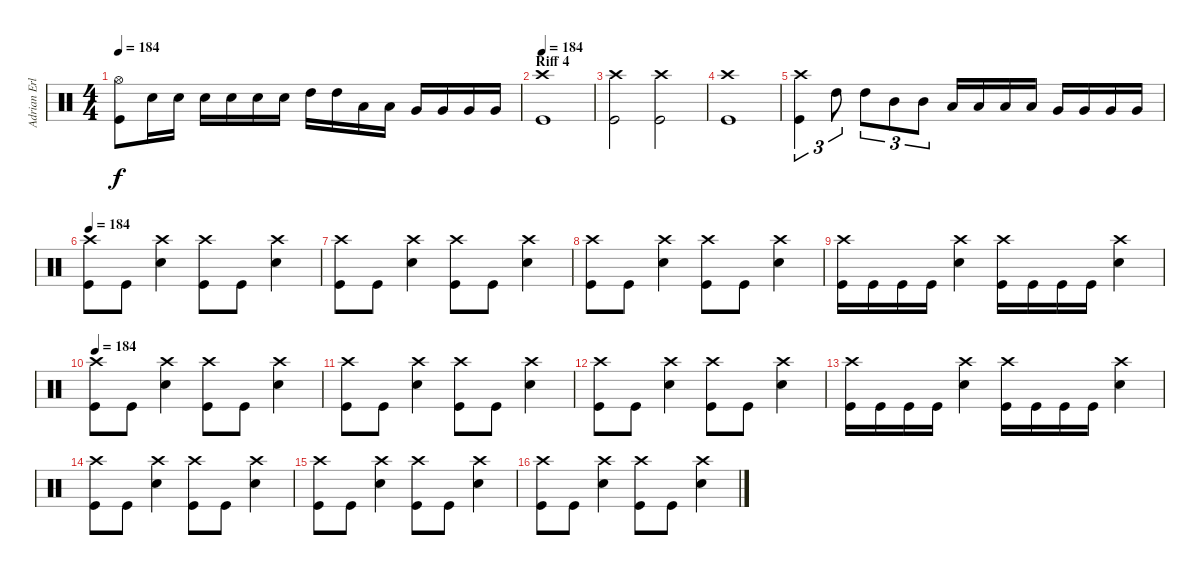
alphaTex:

\track ("Adrian Erlandsson (Norseman of the Apoca" "Adrian Erl") {instrument percussion}
\staff {score}
\articulation defaults
\ts (4 4)
\tempo 184
\clef neutral
\ks c
("Hi-Hat (open)" "Kick (hit)").8{dy f} "Electric Snare (hit)".16 "Electric Snare (hit)".16 "Electric Snare (hit)".16 "Electric Snare (hit)".16 "Electric Snare (hit)".16 "Electric Snare (hit)".16 "High Tom (hit)".16 "High Tom (hit)".16 "Low Tom (hit)".16 "Low Tom (hit)".16 "Very Low Tom (hit)".16 "Very Low Tom (hit)".16 "Very Low Tom (hit)".16 "Very Low Tom (hit)".16 |
\section ("" "Riff 4")
\tempo 184
("Crash high (hit)" "Kick (hit)").1 |
("Crash high (hit)" "Kick (hit)").2 ("Crash high (hit)" "Kick (hit)").2 |
("Crash high (hit)" "Kick (hit)").1 |
("Crash high (hit)" "Kick (hit)").4{tu (3 2)} "High Tom (hit)".8{tu (3 2)} "High Tom (hit)".8{tu (3 2)} "Mid Tom (hit)".8{tu (3 2)} "Mid Tom (hit)".8{tu (3 2)} "Low Tom (hit)".16 "Low Tom (hit)".16 "Low Tom (hit)".16 "Low Tom (hit)".16 "Very Low Tom (hit)".16 "Very Low Tom (hit)".16 "Very Low Tom (hit)".16 "Very Low Tom (hit)".16 |
\tempo 184
("Crash high (hit)" "Kick (hit)").8 "Kick (hit)".8 ("Crash high (hit)" "Electric Snare (hit)").4 ("Crash high (hit)" "Kick (hit)").8 "Kick (hit)".8 ("Crash high (hit)" "Electric Snare (hit)").4 |
("Crash high (hit)" "Kick (hit)").8 "Kick (hit)".8 ("Crash high (hit)" "Electric Snare (hit)").4 ("Crash high (hit)" "Kick (hit)").8 "Kick (hit)".8 ("Crash high (hit)" "Electric Snare (hit)").4 |
("Crash high (hit)" "Kick (hit)").8 "Kick (hit)".8 ("Crash high (hit)" "Electric Snare (hit)").4 ("Crash high (hit)" "Kick (hit)").8 "Kick (hit)".8 ("Crash high (hit)" "Electric Snare (hit)").4 |
("Crash high (hit)" "Kick (hit)").16 "Kick (hit)".16 "Kick (hit)".16 "Kick (hit)".16 ("Crash high (hit)" "Electric Snare (hit)").4 ("Crash high (hit)" "Kick (hit)").16 "Kick (hit)".16 "Kick (hit)".16 "Kick (hit)".16 ("Crash high (hit)" "Electric Snare (hit)").4 |
\tempo 184
("Crash high (hit)" "Kick (hit)").8 "Kick (hit)".8 ("Crash high (hit)" "Electric Snare (hit)").4 ("Crash high (hit)" "Kick (hit)").8 "Kick (hit)".8 ("Crash high (hit)" "Electric Snare (hit)").4 |
("Crash high (hit)" "Kick (hit)").8 "Kick (hit)".8 ("Crash high (hit)" "Electric Snare (hit)").4 ("Crash high (hit)" "Kick (hit)").8 "Kick (hit)".8 ("Crash high (hit)" "Electric Snare (hit)").4 |
("Crash high (hit)" "Kick (hit)").8 "Kick (hit)".8 ("Crash high (hit)" "Electric Snare (hit)").4 ("Crash high (hit)" "Kick (hit)").8 "Kick (hit)".8 ("Crash high (hit)" "Electric Snare (hit)").4 |
("Crash high (hit)" "Kick (hit)").16 "Kick (hit)".16 "Kick (hit)".16 "Kick (hit)".16 ("Crash high (hit)" "Electric Snare (hit)").4 ("Crash high (hit)" "Kick (hit)").16 "Kick (hit)".16 "Kick (hit)".16 "Kick (hit)".16 ("Crash high (hit)" "Electric Snare (hit)").4 |
("Crash high (hit)" "Kick (hit)").8 "Kick (hit)".8 ("Crash high (hit)" "Electric Snare (hit)").4 ("Crash high (hit)" "Kick (hit)").8 "Kick (hit)".8 ("Crash high (hit)" "Electric Snare (hit)").4 |
("Crash high (hit)" "Kick (hit)").8 "Kick (hit)".8 ("Crash high (hit)" "Electric Snare (hit)").4 ("Crash high (hit)" "Kick (hit)").8 "Kick (hit)".8 ("Crash high (hit)" "Electric Snare (hit)").4 |
("Crash high (hit)" "Kick (hit)").8 "Kick (hit)".8 ("Crash high (hit)" "Electric Snare (hit)").4 ("Crash high (hit)" "Kick (hit)").8 "Kick (hit)".8 ("Crash high (hit)" "Electric Snare (hit)").4
